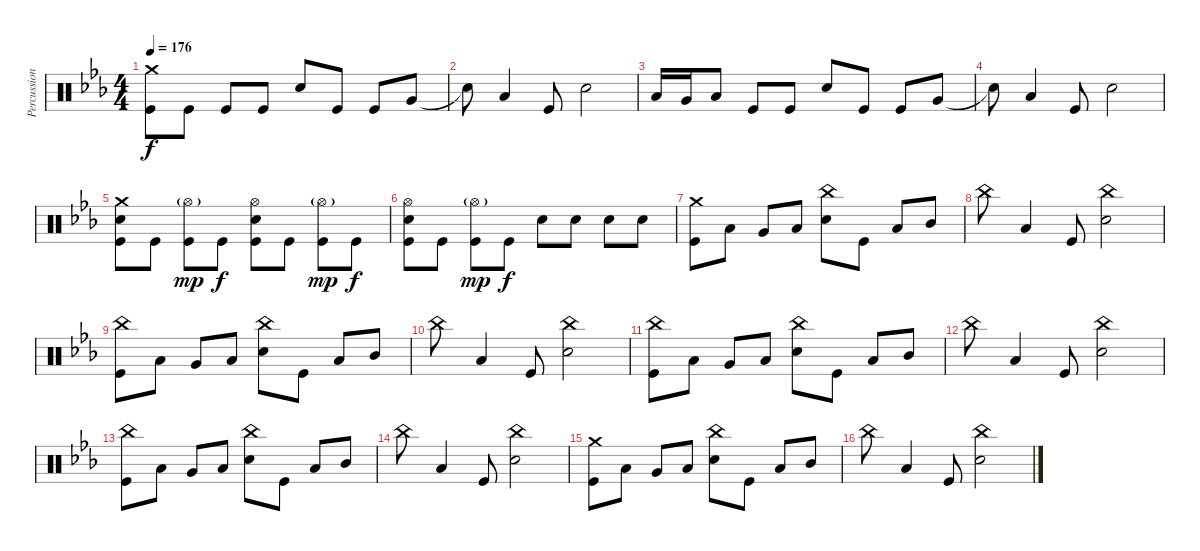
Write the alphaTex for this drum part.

\track ("Percussion" "Percussion") {instrument percussion}
\staff {score}
\articulation defaults
\ts (4 4)
\tempo 176
\clef neutral
\ks eb
("Crash medium (hit)" "Kick (hit)").8{dy f} "Kick (hit)".8 "Kick (hit)".8 "Kick (hit)".8 "Electric Snare (hit)".8 "Kick (hit)".8 "Kick (hit)".8 "Very Low Tom (hit)".8 |
"Snare (hit)"{t}.8 "Low Floor Tom (hit)".4 "Kick (hit)".8 "Electric Snare (hit)".2 |
"Low Floor Tom (hit)".16 "Very Low Tom (hit)".16 "Low Floor Tom (hit)".8 "Kick (hit)".8 "Kick (hit)".8 "Electric Snare (hit)".8 "Kick (hit)".8 "Kick (hit)".8 "Very Low Tom (hit)".8 |
"Snare (hit)"{t}.8 "Low Floor Tom (hit)".4 "Kick (hit)".8 "Electric Snare (hit)".2 |
("Crash medium (hit)" "Electric Snare (hit)" "Kick (hit)").8 "Kick (hit)".8 ("Hi-Hat (open)"{g} "Kick (hit)").8{dy mp} "Kick (hit)".8{dy f} ("Hi-Hat (open)" "Electric Snare (hit)" "Kick (hit)").8 "Kick (hit)".8 ("Hi-Hat (open)"{g} "Kick (hit)").8{dy mp} "Kick (hit)".8{dy f} |
("Hi-Hat (open)" "Electric Snare (hit)" "Kick (hit)").8 "Kick (hit)".8 ("Hi-Hat (open)"{g} "Kick (hit)").8{dy mp} "Kick (hit)".8{dy f} "Electric Snare (hit)".8 "Electric Snare (hit)".8 "Electric Snare (hit)".8 "Electric Snare (hit)".8 |
("Crash medium (hit)" "Kick (hit)").8 "Low Tom (hit)".8 "Very Low Tom (hit)".8 "Low Tom (hit)".8 ("China (hit)" "Electric Snare (hit)").8 "Kick (hit)".8 "Low Floor Tom (hit)".8 "Mid Tom (hit)".8 |
"China (hit)".8 "Low Tom (hit)".4 "Kick (hit)".8 ("China (hit)" "Electric Snare (hit)").2 |
("China (hit)" "Kick (hit)").8 "Low Tom (hit)".8 "Very Low Tom (hit)".8 "Low Tom (hit)".8 ("China (hit)" "Electric Snare (hit)").8 "Kick (hit)".8 "Low Floor Tom (hit)".8 "Mid Tom (hit)".8 |
"China (hit)".8 "Low Tom (hit)".4 "Kick (hit)".8 ("China (hit)" "Electric Snare (hit)").2 |
("China (hit)" "Kick (hit)").8 "Low Tom (hit)".8 "Very Low Tom (hit)".8 "Low Tom (hit)".8 ("China (hit)" "Electric Snare (hit)").8 "Kick (hit)".8 "Low Floor Tom (hit)".8 "Mid Tom (hit)".8 |
"China (hit)".8 "Low Tom (hit)".4 "Kick (hit)".8 ("China (hit)" "Electric Snare (hit)").2 |
("China (hit)" "Kick (hit)").8 "Low Tom (hit)".8 "Very Low Tom (hit)".8 "Low Tom (hit)".8 ("China (hit)" "Electric Snare (hit)").8 "Kick (hit)".8 "Low Floor Tom (hit)".8 "Mid Tom (hit)".8 |
"China (hit)".8 "Low Tom (hit)".4 "Kick (hit)".8 ("China (hit)" "Electric Snare (hit)").2 |
("Crash medium (hit)" "Kick (hit)").8 "Low Tom (hit)".8 "Very Low Tom (hit)".8 "Low Tom (hit)".8 ("China (hit)" "Electric Snare (hit)").8 "Kick (hit)".8 "Low Floor Tom (hit)".8 "Mid Tom (hit)".8 |
"China (hit)".8 "Low Tom (hit)".4 "Kick (hit)".8 ("China (hit)" "Electric Snare (hit)").2
